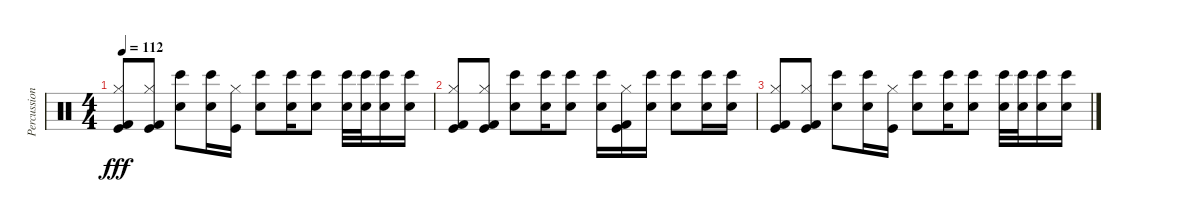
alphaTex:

\track ("Percussion" "Percussion") {instrument percussion}
\staff {score}
\articulation defaults
\ts (4 4)
\tempo 112
\clef neutral
\ks c
("Kick (hit)" "Hi-Hat (closed)" "Kick (hit) 2").8{dy fff} ("Hi-Hat (closed)" "Kick (hit)" "Kick (hit) 2").8 ("Bongo High (hit)" "Snare (hit) 2").8 ("Bongo High (hit)" "Snare (hit) 2").16 ("Hi-Hat (closed)" "Kick (hit)").16 ("Snare (hit) 2" "Bongo High (hit)").8 ("Bongo High (hit)" "Snare (hit) 2").16 ("Bongo High (hit)" "Snare (hit) 2").8 ("Bongo High (hit)" "Snare (hit) 2").32 ("Bongo High (hit)" "Snare (hit) 2").32 ("Bongo High (hit)" "Snare (hit) 2").16 ("Bongo High (hit)" "Snare (hit) 2").16 |
("Kick (hit)" "Hi-Hat (closed)" "Kick (hit) 2").8 ("Hi-Hat (closed)" "Kick (hit)" "Kick (hit) 2").8 ("Bongo High (hit)" "Snare (hit) 2").8 ("Bongo High (hit)" "Snare (hit) 2").16 ("Bongo High (hit)" "Snare (hit) 2").8 ("Snare (hit) 2" "Bongo High (hit)").16 ("Hi-Hat (closed)" "Kick (hit) 2" "Kick (hit)").16 ("Bongo High (hit)" "Snare (hit) 2").16 ("Bongo High (hit)" "Snare (hit) 2").8 ("Bongo High (hit)" "Snare (hit) 2").16 ("Bongo High (hit)" "Snare (hit) 2").16 |
("Kick (hit)" "Hi-Hat (closed)" "Kick (hit) 2").8 ("Hi-Hat (closed)" "Kick (hit)" "Kick (hit) 2").8 ("Bongo High (hit)" "Snare (hit) 2").8 ("Bongo High (hit)" "Snare (hit) 2").16 ("Hi-Hat (closed)" "Kick (hit)").16 ("Snare (hit) 2" "Bongo High (hit)").8 ("Bongo High (hit)" "Snare (hit) 2").16 ("Bongo High (hit)" "Snare (hit) 2").8 ("Bongo High (hit)" "Snare (hit) 2").32 ("Bongo High (hit)" "Snare (hit) 2").32 ("Bongo High (hit)" "Snare (hit) 2").16 ("Bongo High (hit)" "Snare (hit) 2").16
